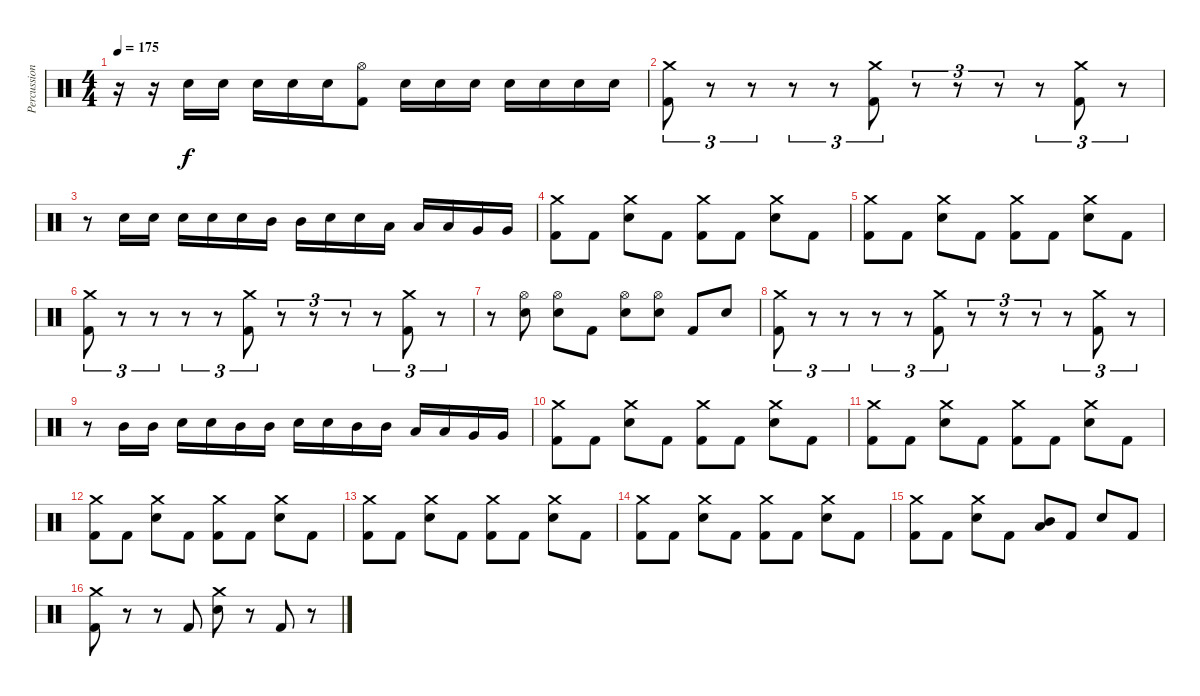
\track ("Percussion" "Percussion") {instrument percussion}
\staff {score}
\articulation defaults
\ts (4 4)
\tempo 175
\clef neutral
\ks c
r.16{dy f} r.16 "Electric Snare (hit)".16 "Electric Snare (hit)".16 "Electric Snare (hit)".16 "Electric Snare (hit)".16 "Electric Snare (hit)".16 ("Hi-Hat (open)" "Kick (hit) 2").8 "Electric Snare (hit)".16 "Electric Snare (hit)".16 "Electric Snare (hit)".16 "Electric Snare (hit)".16 "Electric Snare (hit)".16 "Electric Snare (hit)".16 "Electric Snare (hit)".16 |
("Crash medium (hit)" "Kick (hit) 2").8{tu (3 2)} r.8{tu (3 2)} r.8{tu (3 2)} r.8{tu (3 2)} r.8{tu (3 2)} ("Crash medium (hit)" "Kick (hit) 2").8{tu (3 2)} r.8{tu (3 2)} r.8{tu (3 2)} r.8{tu (3 2)} r.8{tu (3 2)} ("Crash medium (hit)" "Kick (hit) 2").8{tu (3 2)} r.8{tu (3 2)} |
r.8 "Electric Snare (hit)".16 "Electric Snare (hit)".16 "Electric Snare (hit)".16 "Electric Snare (hit)".16 "Electric Snare (hit)".16 "Mid Tom (hit)".16 "Mid Tom (hit)".16 "Electric Snare (hit)".16 "Electric Snare (hit)".16 "Low Tom (hit)".16 "Low Tom (hit)".16 "Low Tom (hit)".16 "Very Low Tom (hit)".16 "Very Low Tom (hit)".16 |
("Crash medium (hit)" "Kick (hit) 2").8 "Kick (hit) 2".8 ("Crash medium (hit)" "Electric Snare (hit)").8 "Kick (hit) 2".8 ("Crash medium (hit)" "Kick (hit) 2").8 "Kick (hit) 2".8 ("Crash medium (hit)" "Electric Snare (hit)").8 "Kick (hit) 2".8 |
("Crash medium (hit)" "Kick (hit) 2").8 "Kick (hit) 2".8 ("Crash medium (hit)" "Electric Snare (hit)").8 "Kick (hit) 2".8 ("Crash medium (hit)" "Kick (hit) 2").8 "Kick (hit) 2".8 ("Crash medium (hit)" "Electric Snare (hit)").8 "Kick (hit) 2".8 |
("Crash medium (hit)" "Kick (hit) 2").8{tu (3 2)} r.8{tu (3 2)} r.8{tu (3 2)} r.8{tu (3 2)} r.8{tu (3 2)} ("Crash medium (hit)" "Kick (hit) 2").8{tu (3 2)} r.8{tu (3 2)} r.8{tu (3 2)} r.8{tu (3 2)} r.8{tu (3 2)} ("Crash medium (hit)" "Kick (hit) 2").8{tu (3 2)} r.8{tu (3 2)} |
r.8 ("Hi-Hat (open)" "Electric Snare (hit)").8 ("Hi-Hat (open)" "Electric Snare (hit)").8 "Kick (hit) 2".8 ("Hi-Hat (open)" "Electric Snare (hit)").8 ("Hi-Hat (open)" "Electric Snare (hit)").8 "Kick (hit) 2".8 "Electric Snare (hit)".8 |
("Crash medium (hit)" "Kick (hit) 2").8{tu (3 2)} r.8{tu (3 2)} r.8{tu (3 2)} r.8{tu (3 2)} r.8{tu (3 2)} ("Crash medium (hit)" "Kick (hit) 2").8{tu (3 2)} r.8{tu (3 2)} r.8{tu (3 2)} r.8{tu (3 2)} r.8{tu (3 2)} ("Crash medium (hit)" "Kick (hit) 2").8{tu (3 2)} r.8{tu (3 2)} |
r.8 "Mid Tom (hit)".16 "Mid Tom (hit)".16 "Electric Snare (hit)".16 "Electric Snare (hit)".16 "Mid Tom (hit)".16 "Mid Tom (hit)".16 "Electric Snare (hit)".16 "Electric Snare (hit)".16 "Mid Tom (hit)".16 "Mid Tom (hit)".16 "Low Tom (hit)".16 "Low Tom (hit)".16 "Very Low Tom (hit)".16 "Very Low Tom (hit)".16 |
("Crash medium (hit)" "Kick (hit) 2").8 "Kick (hit) 2".8 ("Crash medium (hit)" "Electric Snare (hit)").8 "Kick (hit) 2".8 ("Crash medium (hit)" "Kick (hit) 2").8 "Kick (hit) 2".8 ("Crash medium (hit)" "Electric Snare (hit)").8 "Kick (hit) 2".8 |
("Crash medium (hit)" "Kick (hit) 2").8 "Kick (hit) 2".8 ("Crash medium (hit)" "Electric Snare (hit)").8 "Kick (hit) 2".8 ("Crash medium (hit)" "Kick (hit) 2").8 "Kick (hit) 2".8 ("Crash medium (hit)" "Electric Snare (hit)").8 "Kick (hit) 2".8 |
("Crash medium (hit)" "Kick (hit) 2").8 "Kick (hit) 2".8 ("Crash medium (hit)" "Electric Snare (hit)").8 "Kick (hit) 2".8 ("Crash medium (hit)" "Kick (hit) 2").8 "Kick (hit) 2".8 ("Crash medium (hit)" "Electric Snare (hit)").8 "Kick (hit) 2".8 |
("Crash medium (hit)" "Kick (hit) 2").8 "Kick (hit) 2".8 ("Crash medium (hit)" "Electric Snare (hit)").8 "Kick (hit) 2".8 ("Crash medium (hit)" "Kick (hit) 2").8 "Kick (hit) 2".8 ("Crash medium (hit)" "Electric Snare (hit)").8 "Kick (hit) 2".8 |
("Crash medium (hit)" "Kick (hit) 2").8 "Kick (hit) 2".8 ("Crash medium (hit)" "Electric Snare (hit)").8 "Kick (hit) 2".8 ("Crash medium (hit)" "Kick (hit) 2").8 "Kick (hit) 2".8 ("Crash medium (hit)" "Electric Snare (hit)").8 "Kick (hit) 2".8 |
("Crash medium (hit)" "Kick (hit) 2").8 "Kick (hit) 2".8 ("Crash medium (hit)" "Electric Snare (hit)").8 "Kick (hit) 2".8 ("Mid Tom (hit)" "Low Tom (hit)").8 "Kick (hit) 2".8 "Electric Snare (hit)".8 "Kick (hit) 2".8 |
("Crash medium (hit)" "Kick (hit) 2").8 r.8 r.8 "Kick (hit) 2".8 ("Crash medium (hit)" "Electric Snare (hit)").8 r.8 "Kick (hit) 2".8 r.8
